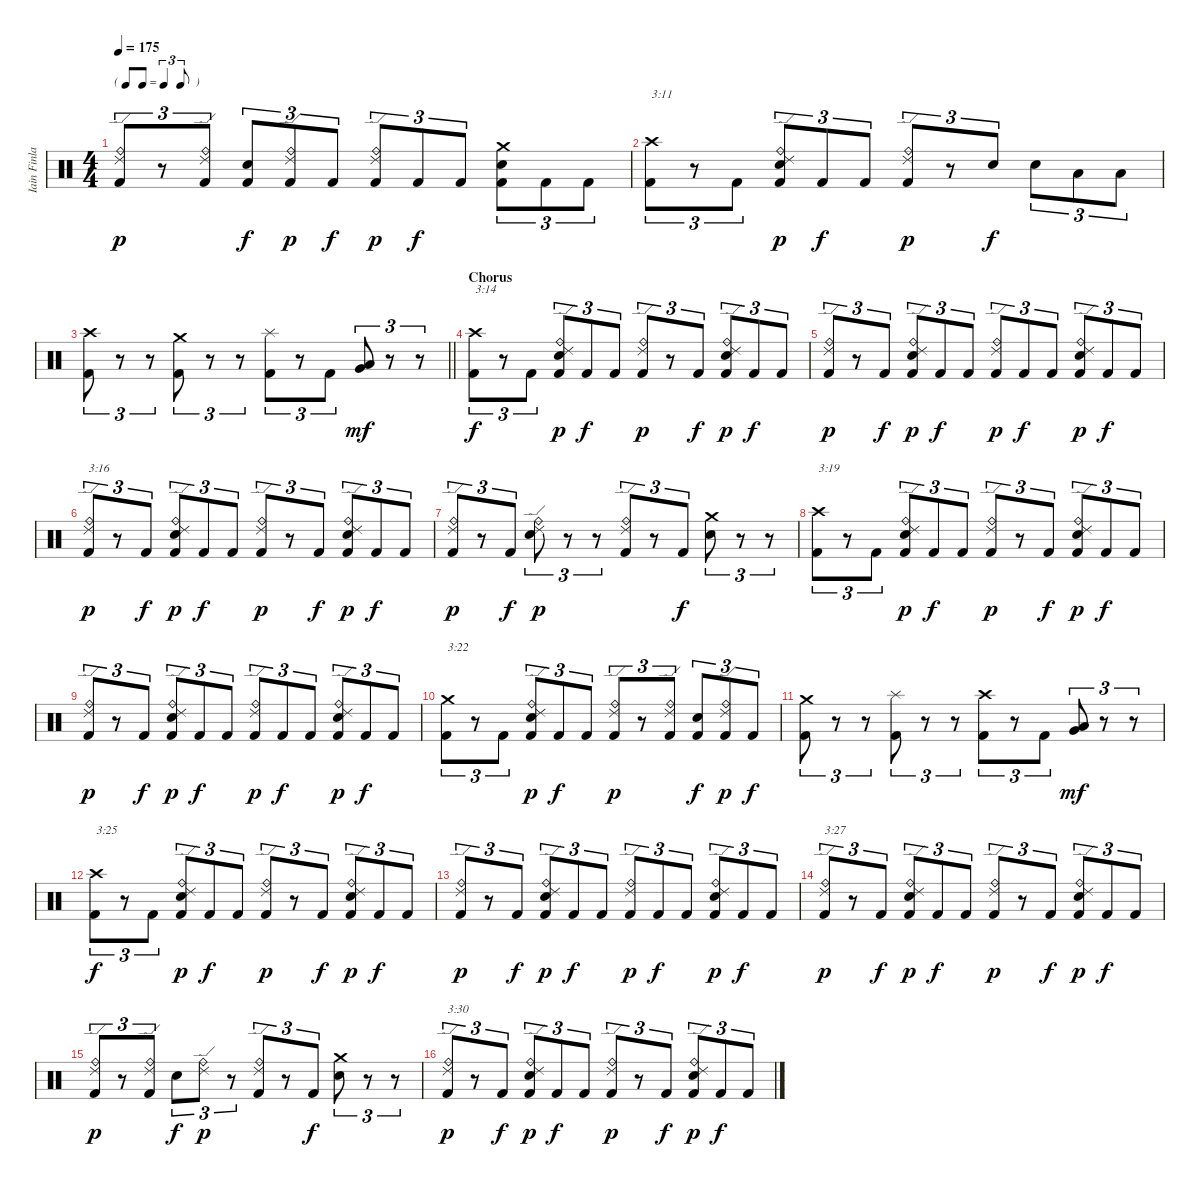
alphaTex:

\track ("Iain Finlay" "Iain Finla") {instrument percussion}
\staff {score}
\articulation defaults
\ts (4 4)
\tf triplet8th
\tempo 175
\clef neutral
\ks c
("Ride (edge) 2" "Ride (bell)" "Kick (hit) 2").8{tu (3 2) dy p} r.8{tu (3 2)} ("Ride (edge) 2" "Ride (bell)" "Kick (hit) 2").8{tu (3 2)} ("Electric Snare (hit)" "Kick (hit) 2").8{tu (3 2) dy f} ("Ride (edge) 2" "Ride (bell)" "Kick (hit) 2").8{tu (3 2) dy p} "Kick (hit) 2".8{tu (3 2) dy f} ("Ride (edge) 2" "Ride (bell)" "Kick (hit) 2").8{tu (3 2) dy p} "Kick (hit) 2".8{tu (3 2) dy f} "Kick (hit) 2".8{tu (3 2)} ("Crash medium (hit)" "Electric Snare (hit)" "Kick (hit) 2").8{tu (3 2)} "Kick (hit) 2".8{tu (3 2)} "Kick (hit) 2".8{tu (3 2)} |
("Crash high (hit)" "Kick (hit) 2").8{tu (3 2) txt "3:11"} r.8{tu (3 2)} "Kick (hit) 2".8{tu (3 2)} ("Ride (edge) 2" "Ride (bell)" "Electric Snare (hit)" "Kick (hit) 2").8{tu (3 2) dy p} "Kick (hit) 2".8{tu (3 2) dy f} "Kick (hit) 2".8{tu (3 2)} ("Ride (edge) 2" "Ride (bell)" "Kick (hit) 2").8{tu (3 2) dy p} r.8{tu (3 2)} "Electric Snare (hit)".8{tu (3 2) dy f} "Electric Snare (hit)".8{tu (3 2)} "Low Tom (hit)".8{tu (3 2)} "Low Tom (hit)".8{tu (3 2)} |
\barLineRight lightlight
("Crash high (hit)" "Kick (hit) 2").8{tu (3 2)} r.8{tu (3 2)} r.8{tu (3 2)} ("Crash medium (hit)" "Kick (hit) 2").8{tu (3 2)} r.8{tu (3 2)} r.8{tu (3 2)} ("Splash (hit)" "Kick (hit) 2").8{tu (3 2)} r.8{tu (3 2)} "Kick (hit) 2".8{tu (3 2)} ("Very Low Tom (hit)" "Low Floor Tom (hit)").8{tu (3 2) dy mf} r.8{tu (3 2)} r.8{tu (3 2)} |
\section ("" "Chorus")
("Crash high (hit)" "Kick (hit) 2").8{tu (3 2) txt "3:14" dy f} r.8{tu (3 2)} "Kick (hit) 2".8{tu (3 2)} ("Ride (edge) 2" "Ride (bell)" "Electric Snare (hit)" "Kick (hit) 2").8{tu (3 2) dy p} "Kick (hit) 2".8{tu (3 2) dy f} "Kick (hit) 2".8{tu (3 2)} ("Ride (edge) 2" "Ride (bell)" "Kick (hit) 2").8{tu (3 2) dy p} r.8{tu (3 2)} "Kick (hit) 2".8{tu (3 2) dy f} ("Ride (edge) 2" "Ride (bell)" "Electric Snare (hit)" "Kick (hit) 2").8{tu (3 2) dy p} "Kick (hit) 2".8{tu (3 2) dy f} "Kick (hit) 2".8{tu (3 2)} |
("Ride (edge) 2" "Ride (bell)" "Kick (hit) 2").8{tu (3 2) dy p} r.8{tu (3 2)} "Kick (hit) 2".8{tu (3 2) dy f} ("Ride (edge) 2" "Ride (bell)" "Electric Snare (hit)" "Kick (hit) 2").8{tu (3 2) dy p} "Kick (hit) 2".8{tu (3 2) dy f} "Kick (hit) 2".8{tu (3 2)} ("Ride (edge) 2" "Ride (bell)" "Kick (hit) 2").8{tu (3 2) dy p} "Kick (hit) 2".8{tu (3 2) dy f} "Kick (hit) 2".8{tu (3 2)} ("Ride (edge) 2" "Ride (bell)" "Electric Snare (hit)" "Kick (hit) 2").8{tu (3 2) dy p} "Kick (hit) 2".8{tu (3 2) dy f} "Kick (hit) 2".8{tu (3 2)} |
("Ride (edge) 2" "Ride (bell)" "Kick (hit) 2").8{tu (3 2) txt "3:16" dy p} r.8{tu (3 2)} "Kick (hit) 2".8{tu (3 2) dy f} ("Ride (edge) 2" "Ride (bell)" "Electric Snare (hit)" "Kick (hit) 2").8{tu (3 2) dy p} "Kick (hit) 2".8{tu (3 2) dy f} "Kick (hit) 2".8{tu (3 2)} ("Ride (edge) 2" "Ride (bell)" "Kick (hit) 2").8{tu (3 2) dy p} r.8{tu (3 2)} "Kick (hit) 2".8{tu (3 2) dy f} ("Ride (edge) 2" "Ride (bell)" "Electric Snare (hit)" "Kick (hit) 2").8{tu (3 2) dy p} "Kick (hit) 2".8{tu (3 2) dy f} "Kick (hit) 2".8{tu (3 2)} |
("Ride (edge) 2" "Ride (bell)" "Kick (hit) 2").8{tu (3 2) dy p} r.8{tu (3 2)} "Kick (hit) 2".8{tu (3 2) dy f} ("Ride (edge) 2" "Ride (bell)" "Electric Snare (hit)").8{tu (3 2) dy p} r.8{tu (3 2)} r.8{tu (3 2)} ("Ride (edge) 2" "Ride (bell)" "Kick (hit) 2").8{tu (3 2)} r.8{tu (3 2)} "Kick (hit) 2".8{tu (3 2) dy f} ("Crash medium (hit)" "Electric Snare (hit)").8{tu (3 2)} r.8{tu (3 2)} r.8{tu (3 2)} |
("Crash high (hit)" "Kick (hit) 2").8{tu (3 2) txt "3:19"} r.8{tu (3 2)} "Kick (hit) 2".8{tu (3 2)} ("Ride (edge) 2" "Ride (bell)" "Electric Snare (hit)" "Kick (hit) 2").8{tu (3 2) dy p} "Kick (hit) 2".8{tu (3 2) dy f} "Kick (hit) 2".8{tu (3 2)} ("Ride (edge) 2" "Ride (bell)" "Kick (hit) 2").8{tu (3 2) dy p} r.8{tu (3 2)} "Kick (hit) 2".8{tu (3 2) dy f} ("Ride (edge) 2" "Ride (bell)" "Electric Snare (hit)" "Kick (hit) 2").8{tu (3 2) dy p} "Kick (hit) 2".8{tu (3 2) dy f} "Kick (hit) 2".8{tu (3 2)} |
("Ride (edge) 2" "Ride (bell)" "Kick (hit) 2").8{tu (3 2) dy p} r.8{tu (3 2)} "Kick (hit) 2".8{tu (3 2) dy f} ("Ride (edge) 2" "Ride (bell)" "Electric Snare (hit)" "Kick (hit) 2").8{tu (3 2) dy p} "Kick (hit) 2".8{tu (3 2) dy f} "Kick (hit) 2".8{tu (3 2)} ("Ride (edge) 2" "Ride (bell)" "Kick (hit) 2").8{tu (3 2) dy p} "Kick (hit) 2".8{tu (3 2) dy f} "Kick (hit) 2".8{tu (3 2)} ("Ride (edge) 2" "Ride (bell)" "Electric Snare (hit)" "Kick (hit) 2").8{tu (3 2) dy p} "Kick (hit) 2".8{tu (3 2) dy f} "Kick (hit) 2".8{tu (3 2)} |
("Crash medium (hit)" "Kick (hit) 2").8{tu (3 2) txt "3:22"} r.8{tu (3 2)} "Kick (hit) 2".8{tu (3 2)} ("Ride (edge) 2" "Ride (bell)" "Electric Snare (hit)" "Kick (hit) 2").8{tu (3 2) dy p} "Kick (hit) 2".8{tu (3 2) dy f} "Kick (hit) 2".8{tu (3 2)} ("Ride (edge) 2" "Ride (bell)" "Kick (hit) 2").8{tu (3 2) dy p} r.8{tu (3 2)} ("Ride (edge) 2" "Ride (bell)" "Kick (hit) 2").8{tu (3 2)} ("Electric Snare (hit)" "Kick (hit) 2").8{tu (3 2) dy f} ("Ride (edge) 2" "Ride (bell)" "Kick (hit) 2").8{tu (3 2) dy p} "Kick (hit) 2".8{tu (3 2) dy f} |
("Crash medium (hit)" "Kick (hit) 2").8{tu (3 2)} r.8{tu (3 2)} r.8{tu (3 2)} ("Splash (hit)" "Kick (hit) 2").8{tu (3 2)} r.8{tu (3 2)} r.8{tu (3 2)} ("Crash high (hit)" "Kick (hit) 2").8{tu (3 2)} r.8{tu (3 2)} "Kick (hit) 2".8{tu (3 2)} ("Very Low Tom (hit)" "Low Floor Tom (hit)").8{tu (3 2) dy mf} r.8{tu (3 2)} r.8{tu (3 2)} |
("Crash high (hit)" "Kick (hit) 2").8{tu (3 2) txt "3:25" dy f} r.8{tu (3 2)} "Kick (hit) 2".8{tu (3 2)} ("Ride (edge) 2" "Ride (bell)" "Electric Snare (hit)" "Kick (hit) 2").8{tu (3 2) dy p} "Kick (hit) 2".8{tu (3 2) dy f} "Kick (hit) 2".8{tu (3 2)} ("Ride (edge) 2" "Ride (bell)" "Kick (hit) 2").8{tu (3 2) dy p} r.8{tu (3 2)} "Kick (hit) 2".8{tu (3 2) dy f} ("Ride (edge) 2" "Ride (bell)" "Electric Snare (hit)" "Kick (hit) 2").8{tu (3 2) dy p} "Kick (hit) 2".8{tu (3 2) dy f} "Kick (hit) 2".8{tu (3 2)} |
("Ride (edge) 2" "Ride (bell)" "Kick (hit) 2").8{tu (3 2) dy p} r.8{tu (3 2)} "Kick (hit) 2".8{tu (3 2) dy f} ("Ride (edge) 2" "Ride (bell)" "Electric Snare (hit)" "Kick (hit) 2").8{tu (3 2) dy p} "Kick (hit) 2".8{tu (3 2) dy f} "Kick (hit) 2".8{tu (3 2)} ("Ride (edge) 2" "Ride (bell)" "Kick (hit) 2").8{tu (3 2) dy p} "Kick (hit) 2".8{tu (3 2) dy f} "Kick (hit) 2".8{tu (3 2)} ("Ride (edge) 2" "Ride (bell)" "Electric Snare (hit)" "Kick (hit) 2").8{tu (3 2) dy p} "Kick (hit) 2".8{tu (3 2) dy f} "Kick (hit) 2".8{tu (3 2)} |
("Ride (edge) 2" "Ride (bell)" "Kick (hit) 2").8{tu (3 2) txt "3:27" dy p} r.8{tu (3 2)} "Kick (hit) 2".8{tu (3 2) dy f} ("Ride (edge) 2" "Ride (bell)" "Electric Snare (hit)" "Kick (hit) 2").8{tu (3 2) dy p} "Kick (hit) 2".8{tu (3 2) dy f} "Kick (hit) 2".8{tu (3 2)} ("Ride (edge) 2" "Ride (bell)" "Kick (hit) 2").8{tu (3 2) dy p} r.8{tu (3 2)} "Kick (hit) 2".8{tu (3 2) dy f} ("Ride (edge) 2" "Ride (bell)" "Electric Snare (hit)" "Kick (hit) 2").8{tu (3 2) dy p} "Kick (hit) 2".8{tu (3 2) dy f} "Kick (hit) 2".8{tu (3 2)} |
("Ride (edge) 2" "Ride (bell)" "Kick (hit) 2").8{tu (3 2) dy p} r.8{tu (3 2)} ("Ride (edge) 2" "Ride (bell)" "Kick (hit) 2").8{tu (3 2)} "Electric Snare (hit)".8{tu (3 2) dy f} ("Ride (edge) 2" "Ride (bell)").8{tu (3 2) dy p} r.8{tu (3 2)} ("Ride (edge) 2" "Ride (bell)" "Kick (hit) 2").8{tu (3 2)} r.8{tu (3 2)} "Kick (hit) 2".8{tu (3 2) dy f} ("Crash medium (hit)" "Electric Snare (hit)").8{tu (3 2)} r.8{tu (3 2)} r.8{tu (3 2)} |
("Ride (edge) 2" "Ride (bell)" "Kick (hit) 2").8{tu (3 2) txt "3:30" dy p} r.8{tu (3 2)} "Kick (hit) 2".8{tu (3 2) dy f} ("Ride (edge) 2" "Ride (bell)" "Electric Snare (hit)" "Kick (hit) 2").8{tu (3 2) dy p} "Kick (hit) 2".8{tu (3 2) dy f} "Kick (hit) 2".8{tu (3 2)} ("Ride (edge) 2" "Ride (bell)" "Kick (hit) 2").8{tu (3 2) dy p} r.8{tu (3 2)} "Kick (hit) 2".8{tu (3 2) dy f} ("Ride (edge) 2" "Ride (bell)" "Electric Snare (hit)" "Kick (hit) 2").8{tu (3 2) dy p} "Kick (hit) 2".8{tu (3 2) dy f} "Kick (hit) 2".8{tu (3 2)}
